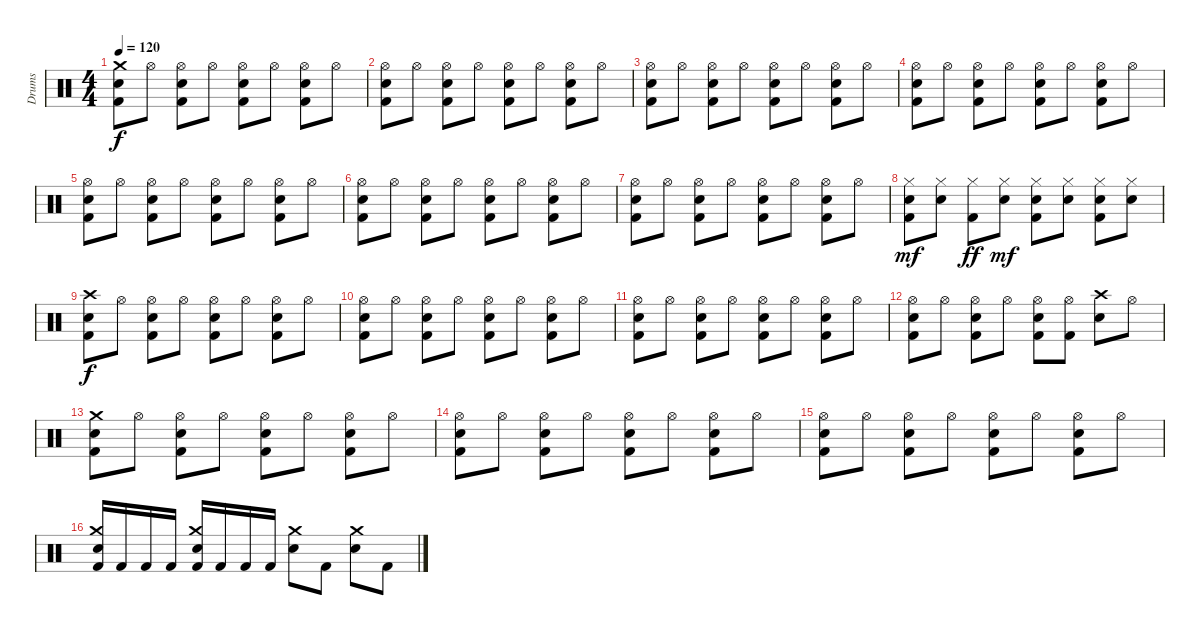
\track ("Drums" "Drums") {instrument percussion}
\staff {score}
\articulation defaults
\ts (4 4)
\tempo 120
\clef neutral
\ks c
("Kick (hit) 2" "Crash medium (hit)" "Snare (hit) 2").8{dy f} "Hi-Hat (open)".8 ("Kick (hit) 2" "Hi-Hat (open)" "Snare (hit) 2").8 "Hi-Hat (open)".8 ("Kick (hit) 2" "Hi-Hat (open)" "Snare (hit) 2").8 "Hi-Hat (open)".8 ("Kick (hit) 2" "Hi-Hat (open)" "Snare (hit) 2").8 "Hi-Hat (open)".8 |
("Kick (hit) 2" "Hi-Hat (open)" "Snare (hit) 2").8 "Hi-Hat (open)".8 ("Kick (hit) 2" "Hi-Hat (open)" "Snare (hit) 2").8 "Hi-Hat (open)".8 ("Kick (hit) 2" "Hi-Hat (open)" "Snare (hit) 2").8 "Hi-Hat (open)".8 ("Kick (hit) 2" "Hi-Hat (open)" "Snare (hit) 2").8 "Hi-Hat (open)".8 |
("Kick (hit) 2" "Hi-Hat (open)" "Snare (hit) 2").8 "Hi-Hat (open)".8 ("Kick (hit) 2" "Hi-Hat (open)" "Snare (hit) 2").8 "Hi-Hat (open)".8 ("Kick (hit) 2" "Hi-Hat (open)" "Snare (hit) 2").8 "Hi-Hat (open)".8 ("Kick (hit) 2" "Hi-Hat (open)" "Snare (hit) 2").8 "Hi-Hat (open)".8 |
("Kick (hit) 2" "Hi-Hat (open)" "Snare (hit) 2").8 "Hi-Hat (open)".8 ("Kick (hit) 2" "Hi-Hat (open)" "Snare (hit) 2").8 "Hi-Hat (open)".8 ("Kick (hit) 2" "Hi-Hat (open)" "Snare (hit) 2").8 "Hi-Hat (open)".8 ("Kick (hit) 2" "Hi-Hat (open)" "Snare (hit) 2").8 "Hi-Hat (open)".8 |
("Kick (hit) 2" "Hi-Hat (open)" "Snare (hit) 2").8 "Hi-Hat (open)".8 ("Kick (hit) 2" "Hi-Hat (open)" "Snare (hit) 2").8 "Hi-Hat (open)".8 ("Kick (hit) 2" "Hi-Hat (open)" "Snare (hit) 2").8 "Hi-Hat (open)".8 ("Kick (hit) 2" "Hi-Hat (open)" "Snare (hit) 2").8 "Hi-Hat (open)".8 |
("Kick (hit) 2" "Hi-Hat (open)" "Snare (hit) 2").8 "Hi-Hat (open)".8 ("Kick (hit) 2" "Hi-Hat (open)" "Snare (hit) 2").8 "Hi-Hat (open)".8 ("Kick (hit) 2" "Hi-Hat (open)" "Snare (hit) 2").8 "Hi-Hat (open)".8 ("Kick (hit) 2" "Hi-Hat (open)" "Snare (hit) 2").8 "Hi-Hat (open)".8 |
("Kick (hit) 2" "Hi-Hat (open)" "Snare (hit) 2").8 "Hi-Hat (open)".8 ("Kick (hit) 2" "Hi-Hat (open)" "Snare (hit) 2").8 "Hi-Hat (open)".8 ("Kick (hit) 2" "Hi-Hat (open)" "Snare (hit) 2").8 "Hi-Hat (open)".8 ("Kick (hit) 2" "Hi-Hat (open)" "Snare (hit) 2").8 "Hi-Hat (open)".8 |
("Kick (hit) 2" "Hi-Hat (closed)" "Snare (hit) 2").8{dy mf} ("Hi-Hat (closed)" "Snare (hit) 2").8 ("Kick (hit) 2" "Hi-Hat (closed)").8{dy ff} ("Hi-Hat (closed)" "Snare (hit) 2").8{dy mf} ("Kick (hit) 2" "Hi-Hat (closed)" "Snare (hit) 2").8 ("Hi-Hat (closed)" "Snare (hit) 2").8 ("Kick (hit) 2" "Hi-Hat (closed)" "Snare (hit) 2").8 ("Hi-Hat (closed)" "Snare (hit) 2").8 |
("Kick (hit) 2" "Crash high (hit)" "Snare (hit) 2").8{dy f} "Hi-Hat (open)".8 ("Kick (hit) 2" "Hi-Hat (open)" "Snare (hit) 2").8 "Hi-Hat (open)".8 ("Kick (hit) 2" "Hi-Hat (open)" "Snare (hit) 2").8 "Hi-Hat (open)".8 ("Kick (hit) 2" "Hi-Hat (open)" "Snare (hit) 2").8 "Hi-Hat (open)".8 |
("Kick (hit) 2" "Hi-Hat (open)" "Snare (hit) 2").8 "Hi-Hat (open)".8 ("Kick (hit) 2" "Hi-Hat (open)" "Snare (hit) 2").8 "Hi-Hat (open)".8 ("Kick (hit) 2" "Hi-Hat (open)" "Snare (hit) 2").8 "Hi-Hat (open)".8 ("Kick (hit) 2" "Hi-Hat (open)" "Snare (hit) 2").8 "Hi-Hat (open)".8 |
("Kick (hit) 2" "Hi-Hat (open)" "Snare (hit) 2").8 "Hi-Hat (open)".8 ("Kick (hit) 2" "Hi-Hat (open)" "Snare (hit) 2").8 "Hi-Hat (open)".8 ("Kick (hit) 2" "Hi-Hat (open)" "Snare (hit) 2").8 "Hi-Hat (open)".8 ("Kick (hit) 2" "Hi-Hat (open)" "Snare (hit) 2").8 "Hi-Hat (open)".8 |
("Kick (hit) 2" "Hi-Hat (open)" "Snare (hit) 2").8 "Hi-Hat (open)".8 ("Kick (hit) 2" "Hi-Hat (open)" "Snare (hit) 2").8 "Hi-Hat (open)".8 ("Kick (hit) 2" "Hi-Hat (open)" "Snare (hit) 2").8 ("Kick (hit) 2" "Hi-Hat (open)").8 ("Crash high (hit)" "Snare (hit) 2").8 "Hi-Hat (open)".8 |
("Kick (hit) 2" "Crash medium (hit)" "Snare (hit) 2").8 "Hi-Hat (open)".8 ("Kick (hit) 2" "Hi-Hat (open)" "Snare (hit) 2").8 "Hi-Hat (open)".8 ("Kick (hit) 2" "Hi-Hat (open)" "Snare (hit) 2").8 "Hi-Hat (open)".8 ("Kick (hit) 2" "Hi-Hat (open)" "Snare (hit) 2").8 "Hi-Hat (open)".8 |
("Kick (hit) 2" "Hi-Hat (open)" "Snare (hit) 2").8 "Hi-Hat (open)".8 ("Kick (hit) 2" "Hi-Hat (open)" "Snare (hit) 2").8 "Hi-Hat (open)".8 ("Kick (hit) 2" "Hi-Hat (open)" "Snare (hit) 2").8 "Hi-Hat (open)".8 ("Kick (hit) 2" "Hi-Hat (open)" "Snare (hit) 2").8 "Hi-Hat (open)".8 |
("Kick (hit) 2" "Hi-Hat (open)" "Snare (hit) 2").8 "Hi-Hat (open)".8 ("Kick (hit) 2" "Hi-Hat (open)" "Snare (hit) 2").8 "Hi-Hat (open)".8 ("Kick (hit) 2" "Hi-Hat (open)" "Snare (hit) 2").8 "Hi-Hat (open)".8 ("Kick (hit) 2" "Hi-Hat (open)" "Snare (hit) 2").8 "Hi-Hat (open)".8 |
("Kick (hit) 2" "Crash medium (hit)" "Snare (hit) 2").16 "Kick (hit) 2".16 "Kick (hit) 2".16 "Kick (hit) 2".16 ("Kick (hit) 2" "Crash medium (hit)" "Snare (hit) 2").16 "Kick (hit) 2".16 "Kick (hit) 2".16 "Kick (hit) 2".16 ("Crash medium (hit)" "Snare (hit) 2").8 "Kick (hit) 2".8 ("Crash medium (hit)" "Snare (hit) 2").8 "Kick (hit) 2".8
